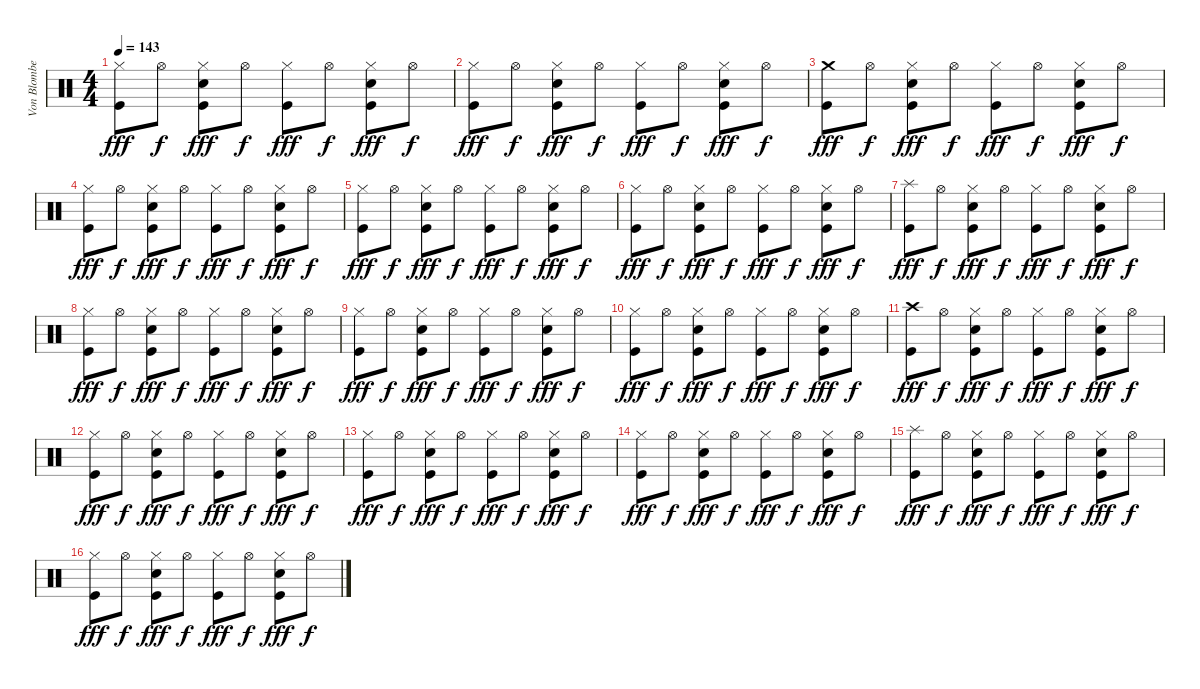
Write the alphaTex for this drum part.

\track ("Von Blomberg" "Von Blombe") {instrument percussion}
\staff {score}
\articulation defaults
\ts (4 4)
\tempo 143
\clef neutral
\ks c
("Hi-Hat (closed)" "Kick (hit)").8{dy fff} "Hi-Hat (open)".8{dy f} ("Hi-Hat (closed)" "Electric Snare (hit)" "Kick (hit)").8{dy fff} "Hi-Hat (open)".8{dy f} ("Hi-Hat (closed)" "Kick (hit)").8{dy fff} "Hi-Hat (open)".8{dy f} ("Hi-Hat (closed)" "Electric Snare (hit)" "Kick (hit)").8{dy fff} "Hi-Hat (open)".8{dy f} |
("Hi-Hat (closed)" "Kick (hit)").8{dy fff} "Hi-Hat (open)".8{dy f} ("Hi-Hat (closed)" "Electric Snare (hit)" "Kick (hit)").8{dy fff} "Hi-Hat (open)".8{dy f} ("Hi-Hat (closed)" "Kick (hit)").8{dy fff} "Hi-Hat (open)".8{dy f} ("Hi-Hat (closed)" "Electric Snare (hit)" "Kick (hit)").8{dy fff} "Hi-Hat (open)".8{dy f} |
("Crash medium (hit)" "Kick (hit)").8{dy fff} "Hi-Hat (open)".8{dy f} ("Hi-Hat (closed)" "Electric Snare (hit)" "Kick (hit)").8{dy fff} "Hi-Hat (open)".8{dy f} ("Hi-Hat (closed)" "Kick (hit)").8{dy fff} "Hi-Hat (open)".8{dy f} ("Hi-Hat (closed)" "Electric Snare (hit)" "Kick (hit)").8{dy fff} "Hi-Hat (open)".8{dy f} |
("Hi-Hat (closed)" "Kick (hit)").8{dy fff} "Hi-Hat (open)".8{dy f} ("Hi-Hat (closed)" "Electric Snare (hit)" "Kick (hit)").8{dy fff} "Hi-Hat (open)".8{dy f} ("Hi-Hat (closed)" "Kick (hit)").8{dy fff} "Hi-Hat (open)".8{dy f} ("Hi-Hat (closed)" "Electric Snare (hit)" "Kick (hit)").8{dy fff} "Hi-Hat (open)".8{dy f} |
("Hi-Hat (closed)" "Kick (hit)").8{dy fff} "Hi-Hat (open)".8{dy f} ("Hi-Hat (closed)" "Electric Snare (hit)" "Kick (hit)").8{dy fff} "Hi-Hat (open)".8{dy f} ("Hi-Hat (closed)" "Kick (hit)").8{dy fff} "Hi-Hat (open)".8{dy f} ("Hi-Hat (closed)" "Electric Snare (hit)" "Kick (hit)").8{dy fff} "Hi-Hat (open)".8{dy f} |
("Hi-Hat (closed)" "Kick (hit)").8{dy fff} "Hi-Hat (open)".8{dy f} ("Hi-Hat (closed)" "Electric Snare (hit)" "Kick (hit)").8{dy fff} "Hi-Hat (open)".8{dy f} ("Hi-Hat (closed)" "Kick (hit)").8{dy fff} "Hi-Hat (open)".8{dy f} ("Hi-Hat (closed)" "Electric Snare (hit)" "Kick (hit)").8{dy fff} "Hi-Hat (open)".8{dy f} |
("Splash (hit)" "Kick (hit)").8{dy fff} "Hi-Hat (open)".8{dy f} ("Hi-Hat (closed)" "Electric Snare (hit)" "Kick (hit)").8{dy fff} "Hi-Hat (open)".8{dy f} ("Hi-Hat (closed)" "Kick (hit)").8{dy fff} "Hi-Hat (open)".8{dy f} ("Hi-Hat (closed)" "Electric Snare (hit)" "Kick (hit)").8{dy fff} "Hi-Hat (open)".8{dy f} |
("Hi-Hat (closed)" "Kick (hit)").8{dy fff} "Hi-Hat (open)".8{dy f} ("Hi-Hat (closed)" "Electric Snare (hit)" "Kick (hit)").8{dy fff} "Hi-Hat (open)".8{dy f} ("Hi-Hat (closed)" "Kick (hit)").8{dy fff} "Hi-Hat (open)".8{dy f} ("Hi-Hat (closed)" "Electric Snare (hit)" "Kick (hit)").8{dy fff} "Hi-Hat (open)".8{dy f} |
("Hi-Hat (closed)" "Kick (hit)").8{dy fff} "Hi-Hat (open)".8{dy f} ("Hi-Hat (closed)" "Electric Snare (hit)" "Kick (hit)").8{dy fff} "Hi-Hat (open)".8{dy f} ("Hi-Hat (closed)" "Kick (hit)").8{dy fff} "Hi-Hat (open)".8{dy f} ("Hi-Hat (closed)" "Electric Snare (hit)" "Kick (hit)").8{dy fff} "Hi-Hat (open)".8{dy f} |
("Hi-Hat (closed)" "Kick (hit)").8{dy fff} "Hi-Hat (open)".8{dy f} ("Hi-Hat (closed)" "Electric Snare (hit)" "Kick (hit)").8{dy fff} "Hi-Hat (open)".8{dy f} ("Hi-Hat (closed)" "Kick (hit)").8{dy fff} "Hi-Hat (open)".8{dy f} ("Hi-Hat (closed)" "Electric Snare (hit)" "Kick (hit)").8{dy fff} "Hi-Hat (open)".8{dy f} |
("Crash high (hit)" "Kick (hit)").8{dy fff} "Hi-Hat (open)".8{dy f} ("Hi-Hat (closed)" "Electric Snare (hit)" "Kick (hit)").8{dy fff} "Hi-Hat (open)".8{dy f} ("Hi-Hat (closed)" "Kick (hit)").8{dy fff} "Hi-Hat (open)".8{dy f} ("Hi-Hat (closed)" "Electric Snare (hit)" "Kick (hit)").8{dy fff} "Hi-Hat (open)".8{dy f} |
("Hi-Hat (closed)" "Kick (hit)").8{dy fff} "Hi-Hat (open)".8{dy f} ("Hi-Hat (closed)" "Electric Snare (hit)" "Kick (hit)").8{dy fff} "Hi-Hat (open)".8{dy f} ("Hi-Hat (closed)" "Kick (hit)").8{dy fff} "Hi-Hat (open)".8{dy f} ("Hi-Hat (closed)" "Electric Snare (hit)" "Kick (hit)").8{dy fff} "Hi-Hat (open)".8{dy f} |
("Hi-Hat (closed)" "Kick (hit)").8{dy fff} "Hi-Hat (open)".8{dy f} ("Hi-Hat (closed)" "Electric Snare (hit)" "Kick (hit)").8{dy fff} "Hi-Hat (open)".8{dy f} ("Hi-Hat (closed)" "Kick (hit)").8{dy fff} "Hi-Hat (open)".8{dy f} ("Hi-Hat (closed)" "Electric Snare (hit)" "Kick (hit)").8{dy fff} "Hi-Hat (open)".8{dy f} |
("Hi-Hat (closed)" "Kick (hit)").8{dy fff} "Hi-Hat (open)".8{dy f} ("Hi-Hat (closed)" "Electric Snare (hit)" "Kick (hit)").8{dy fff} "Hi-Hat (open)".8{dy f} ("Hi-Hat (closed)" "Kick (hit)").8{dy fff} "Hi-Hat (open)".8{dy f} ("Hi-Hat (closed)" "Electric Snare (hit)" "Kick (hit)").8{dy fff} "Hi-Hat (open)".8{dy f} |
("Splash (hit)" "Kick (hit)").8{dy fff} "Hi-Hat (open)".8{dy f} ("Hi-Hat (closed)" "Electric Snare (hit)" "Kick (hit)").8{dy fff} "Hi-Hat (open)".8{dy f} ("Hi-Hat (closed)" "Kick (hit)").8{dy fff} "Hi-Hat (open)".8{dy f} ("Hi-Hat (closed)" "Electric Snare (hit)" "Kick (hit)").8{dy fff} "Hi-Hat (open)".8{dy f} |
("Hi-Hat (closed)" "Kick (hit)").8{dy fff} "Hi-Hat (open)".8{dy f} ("Hi-Hat (closed)" "Electric Snare (hit)" "Kick (hit)").8{dy fff} "Hi-Hat (open)".8{dy f} ("Hi-Hat (closed)" "Kick (hit)").8{dy fff} "Hi-Hat (open)".8{dy f} ("Hi-Hat (closed)" "Electric Snare (hit)" "Kick (hit)").8{dy fff} "Hi-Hat (open)".8{dy f}
